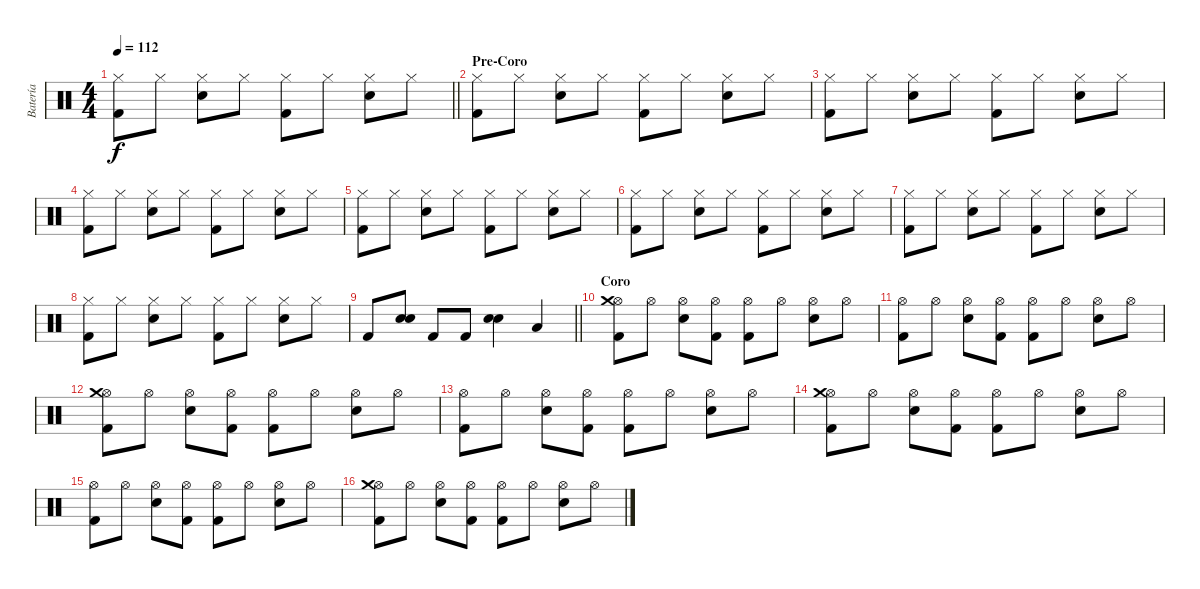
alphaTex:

\track ("Batería" "Batería") {instrument percussion}
\staff {score}
\articulation defaults
\ts (4 4)
\tempo 112
\clef neutral
\barLineRight lightlight
\ks c
("Kick (hit) 2" "Hi-Hat (closed)").8{dy f} "Hi-Hat (closed)".8 ("Electric Snare (hit)" "Hi-Hat (closed)").8 "Hi-Hat (closed)".8 ("Kick (hit) 2" "Hi-Hat (closed)").8 "Hi-Hat (closed)".8 ("Electric Snare (hit)" "Hi-Hat (closed)").8 "Hi-Hat (closed)".8 |
\section ("" "Pre-Coro")
("Kick (hit) 2" "Hi-Hat (closed)").8 "Hi-Hat (closed)".8 ("Electric Snare (hit)" "Hi-Hat (closed)").8 "Hi-Hat (closed)".8 ("Kick (hit) 2" "Hi-Hat (closed)").8 "Hi-Hat (closed)".8 ("Electric Snare (hit)" "Hi-Hat (closed)").8 "Hi-Hat (closed)".8 |
("Kick (hit) 2" "Hi-Hat (closed)").8 "Hi-Hat (closed)".8 ("Electric Snare (hit)" "Hi-Hat (closed)").8 "Hi-Hat (closed)".8 ("Kick (hit) 2" "Hi-Hat (closed)").8 "Hi-Hat (closed)".8 ("Electric Snare (hit)" "Hi-Hat (closed)").8 "Hi-Hat (closed)".8 |
("Kick (hit) 2" "Hi-Hat (closed)").8 "Hi-Hat (closed)".8 ("Electric Snare (hit)" "Hi-Hat (closed)").8 "Hi-Hat (closed)".8 ("Kick (hit) 2" "Hi-Hat (closed)").8 "Hi-Hat (closed)".8 ("Electric Snare (hit)" "Hi-Hat (closed)").8 "Hi-Hat (closed)".8 |
("Kick (hit) 2" "Hi-Hat (closed)").8 "Hi-Hat (closed)".8 ("Electric Snare (hit)" "Hi-Hat (closed)").8 "Hi-Hat (closed)".8 ("Kick (hit) 2" "Hi-Hat (closed)").8 "Hi-Hat (closed)".8 ("Electric Snare (hit)" "Hi-Hat (closed)").8 "Hi-Hat (closed)".8 |
("Kick (hit) 2" "Hi-Hat (closed)").8 "Hi-Hat (closed)".8 ("Electric Snare (hit)" "Hi-Hat (closed)").8 "Hi-Hat (closed)".8 ("Kick (hit) 2" "Hi-Hat (closed)").8 "Hi-Hat (closed)".8 ("Electric Snare (hit)" "Hi-Hat (closed)").8 "Hi-Hat (closed)".8 |
("Kick (hit) 2" "Hi-Hat (closed)").8 "Hi-Hat (closed)".8 ("Electric Snare (hit)" "Hi-Hat (closed)").8 "Hi-Hat (closed)".8 ("Kick (hit) 2" "Hi-Hat (closed)").8 "Hi-Hat (closed)".8 ("Electric Snare (hit)" "Hi-Hat (closed)").8 "Hi-Hat (closed)".8 |
("Kick (hit) 2" "Hi-Hat (closed)").8 "Hi-Hat (closed)".8 ("Electric Snare (hit)" "Hi-Hat (closed)").8 "Hi-Hat (closed)".8 ("Kick (hit) 2" "Hi-Hat (closed)").8 "Hi-Hat (closed)".8 ("Electric Snare (hit)" "Hi-Hat (closed)").8 "Hi-Hat (closed)".8 |
\barLineRight lightlight "Kick (hit) 2".8
("Electric Snare (hit)" "Electric Snare (hit)").8 "Kick (hit) 2".8 "Kick (hit) 2".8 ("Electric Snare (hit)" "Electric Snare (hit)").4 "Low Tom (hit)".4 |
\section ("" "Coro")
("Hi-Hat (open)" "Kick (hit) 2" "Crash medium (hit)").8 "Hi-Hat (open)".8 ("Hi-Hat (open)" "Electric Snare (hit)").8 ("Hi-Hat (open)" "Kick (hit) 2").8 ("Hi-Hat (open)" "Kick (hit) 2").8 "Hi-Hat (open)".8 ("Hi-Hat (open)" "Electric Snare (hit)").8 "Hi-Hat (open)".8 |
("Hi-Hat (open)" "Kick (hit) 2").8 "Hi-Hat (open)".8 ("Hi-Hat (open)" "Electric Snare (hit)").8 ("Hi-Hat (open)" "Kick (hit) 2").8 ("Hi-Hat (open)" "Kick (hit) 2").8 "Hi-Hat (open)".8 ("Hi-Hat (open)" "Electric Snare (hit)").8 "Hi-Hat (open)".8 |
("Hi-Hat (open)" "Kick (hit) 2" "Crash medium (hit)").8 "Hi-Hat (open)".8 ("Hi-Hat (open)" "Electric Snare (hit)").8 ("Hi-Hat (open)" "Kick (hit) 2").8 ("Hi-Hat (open)" "Kick (hit) 2").8 "Hi-Hat (open)".8 ("Hi-Hat (open)" "Electric Snare (hit)").8 "Hi-Hat (open)".8 |
("Hi-Hat (open)" "Kick (hit) 2").8 "Hi-Hat (open)".8 ("Hi-Hat (open)" "Electric Snare (hit)").8 ("Hi-Hat (open)" "Kick (hit) 2").8 ("Hi-Hat (open)" "Kick (hit) 2").8 "Hi-Hat (open)".8 ("Hi-Hat (open)" "Electric Snare (hit)").8 "Hi-Hat (open)".8 |
("Hi-Hat (open)" "Kick (hit) 2" "Crash medium (hit)").8 "Hi-Hat (open)".8 ("Hi-Hat (open)" "Electric Snare (hit)").8 ("Hi-Hat (open)" "Kick (hit) 2").8 ("Hi-Hat (open)" "Kick (hit) 2").8 "Hi-Hat (open)".8 ("Hi-Hat (open)" "Electric Snare (hit)").8 "Hi-Hat (open)".8 |
("Hi-Hat (open)" "Kick (hit) 2").8 "Hi-Hat (open)".8 ("Hi-Hat (open)" "Electric Snare (hit)").8 ("Hi-Hat (open)" "Kick (hit) 2").8 ("Hi-Hat (open)" "Kick (hit) 2").8 "Hi-Hat (open)".8 ("Hi-Hat (open)" "Electric Snare (hit)").8 "Hi-Hat (open)".8 |
("Hi-Hat (open)" "Kick (hit) 2" "Crash medium (hit)").8 "Hi-Hat (open)".8 ("Hi-Hat (open)" "Electric Snare (hit)").8 ("Hi-Hat (open)" "Kick (hit) 2").8 ("Hi-Hat (open)" "Kick (hit) 2").8 "Hi-Hat (open)".8 ("Hi-Hat (open)" "Electric Snare (hit)").8 "Hi-Hat (open)".8
